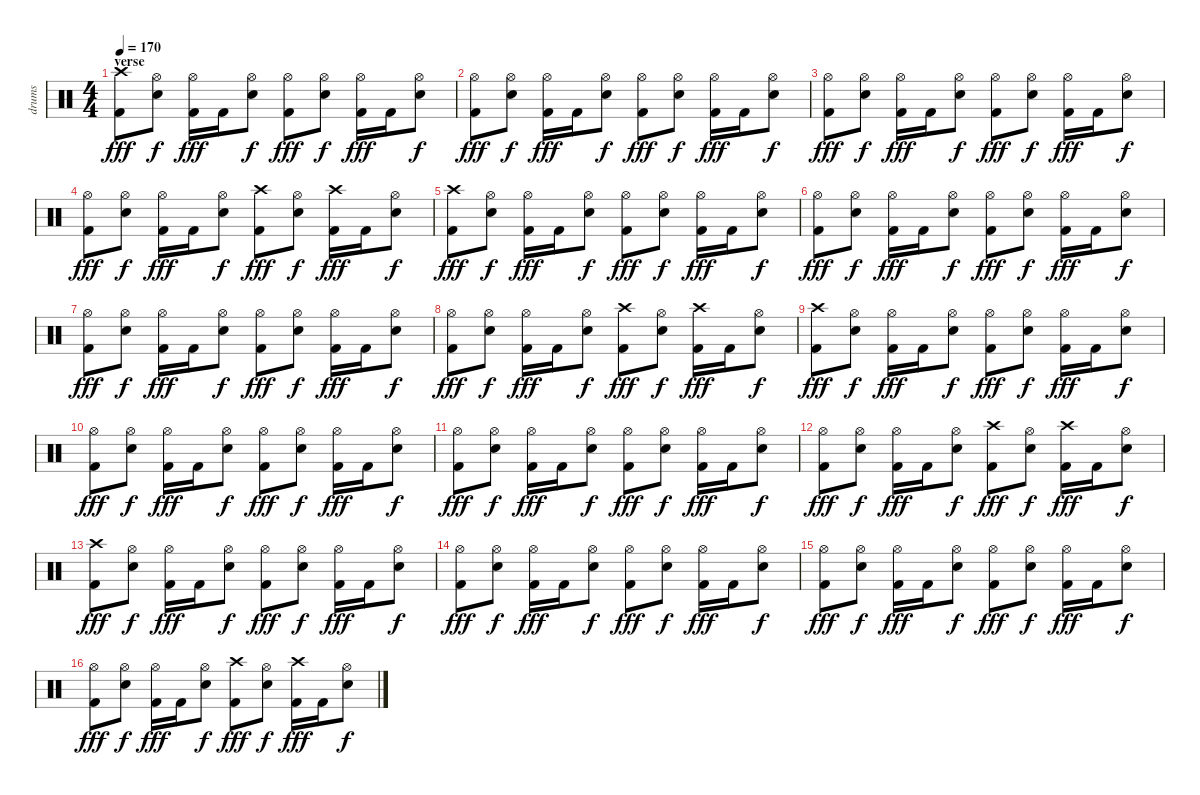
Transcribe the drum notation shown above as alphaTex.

\track ("drums" "drums") {instrument percussion}
\staff {score}
\articulation defaults
\ts (4 4)
\section ("" "verse")
\tempo 170
\clef neutral
\ks c
("Crash high (hit)" "Kick (hit) 2").8{dy fff} ("Hi-Hat (open)" "Snare (hit) 2").8{dy f} ("Hi-Hat (open)" "Kick (hit) 2").16{dy fff} "Kick (hit) 2".16 ("Hi-Hat (open)" "Snare (hit) 2").8{dy f} ("Hi-Hat (open)" "Kick (hit) 2").8{dy fff} ("Hi-Hat (open)" "Snare (hit) 2").8{dy f} ("Hi-Hat (open)" "Kick (hit) 2").16{dy fff} "Kick (hit) 2".16 ("Hi-Hat (open)" "Snare (hit) 2").8{dy f} |
("Hi-Hat (open)" "Kick (hit) 2").8{dy fff} ("Hi-Hat (open)" "Snare (hit) 2").8{dy f} ("Hi-Hat (open)" "Kick (hit) 2").16{dy fff} "Kick (hit) 2".16 ("Hi-Hat (open)" "Snare (hit) 2").8{dy f} ("Hi-Hat (open)" "Kick (hit) 2").8{dy fff} ("Hi-Hat (open)" "Snare (hit) 2").8{dy f} ("Hi-Hat (open)" "Kick (hit) 2").16{dy fff} "Kick (hit) 2".16 ("Hi-Hat (open)" "Snare (hit) 2").8{dy f} |
("Hi-Hat (open)" "Kick (hit) 2").8{dy fff} ("Hi-Hat (open)" "Snare (hit) 2").8{dy f} ("Hi-Hat (open)" "Kick (hit) 2").16{dy fff} "Kick (hit) 2".16 ("Hi-Hat (open)" "Snare (hit) 2").8{dy f} ("Hi-Hat (open)" "Kick (hit) 2").8{dy fff} ("Hi-Hat (open)" "Snare (hit) 2").8{dy f} ("Hi-Hat (open)" "Kick (hit) 2").16{dy fff} "Kick (hit) 2".16 ("Hi-Hat (open)" "Snare (hit) 2").8{dy f} |
("Hi-Hat (open)" "Kick (hit) 2").8{dy fff} ("Hi-Hat (open)" "Snare (hit) 2").8{dy f} ("Hi-Hat (open)" "Kick (hit) 2").16{dy fff} "Kick (hit) 2".16 ("Hi-Hat (open)" "Snare (hit) 2").8{dy f} ("Crash high (hit)" "Kick (hit) 2").8{dy fff} ("Hi-Hat (open)" "Snare (hit) 2").8{dy f} ("Crash high (hit)" "Kick (hit) 2").16{dy fff} "Kick (hit) 2".16 ("Hi-Hat (open)" "Snare (hit) 2").8{dy f} |
("Crash high (hit)" "Kick (hit) 2").8{dy fff} ("Hi-Hat (open)" "Snare (hit) 2").8{dy f} ("Hi-Hat (open)" "Kick (hit) 2").16{dy fff} "Kick (hit) 2".16 ("Hi-Hat (open)" "Snare (hit) 2").8{dy f} ("Hi-Hat (open)" "Kick (hit) 2").8{dy fff} ("Hi-Hat (open)" "Snare (hit) 2").8{dy f} ("Hi-Hat (open)" "Kick (hit) 2").16{dy fff} "Kick (hit) 2".16 ("Hi-Hat (open)" "Snare (hit) 2").8{dy f} |
("Hi-Hat (open)" "Kick (hit) 2").8{dy fff} ("Hi-Hat (open)" "Snare (hit) 2").8{dy f} ("Hi-Hat (open)" "Kick (hit) 2").16{dy fff} "Kick (hit) 2".16 ("Hi-Hat (open)" "Snare (hit) 2").8{dy f} ("Hi-Hat (open)" "Kick (hit) 2").8{dy fff} ("Hi-Hat (open)" "Snare (hit) 2").8{dy f} ("Hi-Hat (open)" "Kick (hit) 2").16{dy fff} "Kick (hit) 2".16 ("Hi-Hat (open)" "Snare (hit) 2").8{dy f} |
("Hi-Hat (open)" "Kick (hit) 2").8{dy fff} ("Hi-Hat (open)" "Snare (hit) 2").8{dy f} ("Hi-Hat (open)" "Kick (hit) 2").16{dy fff} "Kick (hit) 2".16 ("Hi-Hat (open)" "Snare (hit) 2").8{dy f} ("Hi-Hat (open)" "Kick (hit) 2").8{dy fff} ("Hi-Hat (open)" "Snare (hit) 2").8{dy f} ("Hi-Hat (open)" "Kick (hit) 2").16{dy fff} "Kick (hit) 2".16 ("Hi-Hat (open)" "Snare (hit) 2").8{dy f} |
("Hi-Hat (open)" "Kick (hit) 2").8{dy fff} ("Hi-Hat (open)" "Snare (hit) 2").8{dy f} ("Hi-Hat (open)" "Kick (hit) 2").16{dy fff} "Kick (hit) 2".16 ("Hi-Hat (open)" "Snare (hit) 2").8{dy f} ("Crash high (hit)" "Kick (hit) 2").8{dy fff} ("Hi-Hat (open)" "Snare (hit) 2").8{dy f} ("Crash high (hit)" "Kick (hit) 2").16{dy fff} "Kick (hit) 2".16 ("Hi-Hat (open)" "Snare (hit) 2").8{dy f} |
("Crash high (hit)" "Kick (hit) 2").8{dy fff} ("Hi-Hat (open)" "Snare (hit) 2").8{dy f} ("Hi-Hat (open)" "Kick (hit) 2").16{dy fff} "Kick (hit) 2".16 ("Hi-Hat (open)" "Snare (hit) 2").8{dy f} ("Hi-Hat (open)" "Kick (hit) 2").8{dy fff} ("Hi-Hat (open)" "Snare (hit) 2").8{dy f} ("Hi-Hat (open)" "Kick (hit) 2").16{dy fff} "Kick (hit) 2".16 ("Hi-Hat (open)" "Snare (hit) 2").8{dy f} |
("Hi-Hat (open)" "Kick (hit) 2").8{dy fff} ("Hi-Hat (open)" "Snare (hit) 2").8{dy f} ("Hi-Hat (open)" "Kick (hit) 2").16{dy fff} "Kick (hit) 2".16 ("Hi-Hat (open)" "Snare (hit) 2").8{dy f} ("Hi-Hat (open)" "Kick (hit) 2").8{dy fff} ("Hi-Hat (open)" "Snare (hit) 2").8{dy f} ("Hi-Hat (open)" "Kick (hit) 2").16{dy fff} "Kick (hit) 2".16 ("Hi-Hat (open)" "Snare (hit) 2").8{dy f} |
("Hi-Hat (open)" "Kick (hit) 2").8{dy fff} ("Hi-Hat (open)" "Snare (hit) 2").8{dy f} ("Hi-Hat (open)" "Kick (hit) 2").16{dy fff} "Kick (hit) 2".16 ("Hi-Hat (open)" "Snare (hit) 2").8{dy f} ("Hi-Hat (open)" "Kick (hit) 2").8{dy fff} ("Hi-Hat (open)" "Snare (hit) 2").8{dy f} ("Hi-Hat (open)" "Kick (hit) 2").16{dy fff} "Kick (hit) 2".16 ("Hi-Hat (open)" "Snare (hit) 2").8{dy f} |
("Hi-Hat (open)" "Kick (hit) 2").8{dy fff} ("Hi-Hat (open)" "Snare (hit) 2").8{dy f} ("Hi-Hat (open)" "Kick (hit) 2").16{dy fff} "Kick (hit) 2".16 ("Hi-Hat (open)" "Snare (hit) 2").8{dy f} ("Crash high (hit)" "Kick (hit) 2").8{dy fff} ("Hi-Hat (open)" "Snare (hit) 2").8{dy f} ("Crash high (hit)" "Kick (hit) 2").16{dy fff} "Kick (hit) 2".16 ("Hi-Hat (open)" "Snare (hit) 2").8{dy f} |
("Crash high (hit)" "Kick (hit) 2").8{dy fff} ("Hi-Hat (open)" "Snare (hit) 2").8{dy f} ("Hi-Hat (open)" "Kick (hit) 2").16{dy fff} "Kick (hit) 2".16 ("Hi-Hat (open)" "Snare (hit) 2").8{dy f} ("Hi-Hat (open)" "Kick (hit) 2").8{dy fff} ("Hi-Hat (open)" "Snare (hit) 2").8{dy f} ("Hi-Hat (open)" "Kick (hit) 2").16{dy fff} "Kick (hit) 2".16 ("Hi-Hat (open)" "Snare (hit) 2").8{dy f} |
("Hi-Hat (open)" "Kick (hit) 2").8{dy fff} ("Hi-Hat (open)" "Snare (hit) 2").8{dy f} ("Hi-Hat (open)" "Kick (hit) 2").16{dy fff} "Kick (hit) 2".16 ("Hi-Hat (open)" "Snare (hit) 2").8{dy f} ("Hi-Hat (open)" "Kick (hit) 2").8{dy fff} ("Hi-Hat (open)" "Snare (hit) 2").8{dy f} ("Hi-Hat (open)" "Kick (hit) 2").16{dy fff} "Kick (hit) 2".16 ("Hi-Hat (open)" "Snare (hit) 2").8{dy f} |
("Hi-Hat (open)" "Kick (hit) 2").8{dy fff} ("Hi-Hat (open)" "Snare (hit) 2").8{dy f} ("Hi-Hat (open)" "Kick (hit) 2").16{dy fff} "Kick (hit) 2".16 ("Hi-Hat (open)" "Snare (hit) 2").8{dy f} ("Hi-Hat (open)" "Kick (hit) 2").8{dy fff} ("Hi-Hat (open)" "Snare (hit) 2").8{dy f} ("Hi-Hat (open)" "Kick (hit) 2").16{dy fff} "Kick (hit) 2".16 ("Hi-Hat (open)" "Snare (hit) 2").8{dy f} |
("Hi-Hat (open)" "Kick (hit) 2").8{dy fff} ("Hi-Hat (open)" "Snare (hit) 2").8{dy f} ("Hi-Hat (open)" "Kick (hit) 2").16{dy fff} "Kick (hit) 2".16 ("Hi-Hat (open)" "Snare (hit) 2").8{dy f} ("Crash high (hit)" "Kick (hit) 2").8{dy fff} ("Hi-Hat (open)" "Snare (hit) 2").8{dy f} ("Crash high (hit)" "Kick (hit) 2").16{dy fff} "Kick (hit) 2".16 ("Hi-Hat (open)" "Snare (hit) 2").8{dy f}
